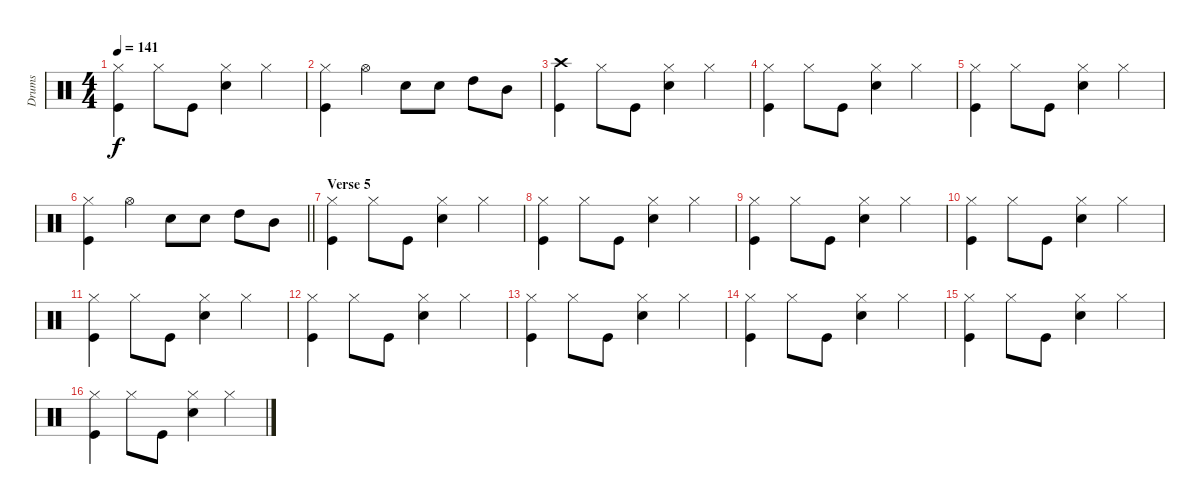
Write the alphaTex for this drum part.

\track ("Drums" "Drums") {instrument percussion}
\staff {score}
\articulation defaults
\ts (4 4)
\tempo 141
\clef neutral
\ks c
("Hi-Hat (closed)" "Kick (hit)").4{dy f} "Hi-Hat (closed)".8 "Kick (hit)".8 ("Hi-Hat (closed)" "Snare (hit) 2").4 "Hi-Hat (closed)".4 |
("Hi-Hat (closed)" "Kick (hit)").4 "Hi-Hat (open)".4 "Snare (hit) 2".8 "Snare (hit) 2".8 "High Tom (hit)".8 "Mid Tom (hit)".8 |
("Crash high (hit)" "Kick (hit)").4 "Hi-Hat (closed)".8 "Kick (hit)".8 ("Hi-Hat (closed)" "Snare (hit) 2").4 "Hi-Hat (closed)".4 |
("Hi-Hat (closed)" "Kick (hit)").4 "Hi-Hat (closed)".8 "Kick (hit)".8 ("Hi-Hat (closed)" "Snare (hit) 2").4 "Hi-Hat (closed)".4 |
("Hi-Hat (closed)" "Kick (hit)").4 "Hi-Hat (closed)".8 "Kick (hit)".8 ("Hi-Hat (closed)" "Snare (hit) 2").4 "Hi-Hat (closed)".4 |
\barLineRight lightlight
("Hi-Hat (closed)" "Kick (hit)").4 "Hi-Hat (open)".4 "Snare (hit) 2".8 "Snare (hit) 2".8 "High Tom (hit)".8 "Mid Tom (hit)".8 |
\section ("" "Verse 5")
("Hi-Hat (closed)" "Kick (hit)").4 "Hi-Hat (closed)".8 "Kick (hit)".8 ("Hi-Hat (closed)" "Snare (hit) 2").4 "Hi-Hat (closed)".4 |
("Hi-Hat (closed)" "Kick (hit)").4 "Hi-Hat (closed)".8 "Kick (hit)".8 ("Hi-Hat (closed)" "Snare (hit) 2").4 "Hi-Hat (closed)".4 |
("Hi-Hat (closed)" "Kick (hit)").4 "Hi-Hat (closed)".8 "Kick (hit)".8 ("Hi-Hat (closed)" "Snare (hit) 2").4 "Hi-Hat (closed)".4 |
("Hi-Hat (closed)" "Kick (hit)").4 "Hi-Hat (closed)".8 "Kick (hit)".8 ("Hi-Hat (closed)" "Snare (hit) 2").4 "Hi-Hat (closed)".4 |
("Hi-Hat (closed)" "Kick (hit)").4 "Hi-Hat (closed)".8 "Kick (hit)".8 ("Hi-Hat (closed)" "Snare (hit) 2").4 "Hi-Hat (closed)".4 |
("Hi-Hat (closed)" "Kick (hit)").4 "Hi-Hat (closed)".8 "Kick (hit)".8 ("Hi-Hat (closed)" "Snare (hit) 2").4 "Hi-Hat (closed)".4 |
("Hi-Hat (closed)" "Kick (hit)").4 "Hi-Hat (closed)".8 "Kick (hit)".8 ("Hi-Hat (closed)" "Snare (hit) 2").4 "Hi-Hat (closed)".4 |
("Hi-Hat (closed)" "Kick (hit)").4 "Hi-Hat (closed)".8 "Kick (hit)".8 ("Hi-Hat (closed)" "Snare (hit) 2").4 "Hi-Hat (closed)".4 |
("Hi-Hat (closed)" "Kick (hit)").4 "Hi-Hat (closed)".8 "Kick (hit)".8 ("Hi-Hat (closed)" "Snare (hit) 2").4 "Hi-Hat (closed)".4 |
("Hi-Hat (closed)" "Kick (hit)").4 "Hi-Hat (closed)".8 "Kick (hit)".8 ("Hi-Hat (closed)" "Snare (hit) 2").4 "Hi-Hat (closed)".4
